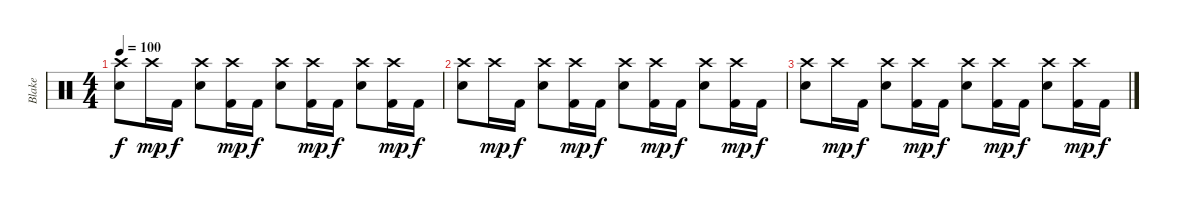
\track ("Blake" "Blake") {instrument percussion}
\staff {score}
\articulation defaults
\ts (4 4)
\tempo 100
\clef neutral
\ks c
("Crash high (hit)" "Snare (hit) 2").8{dy f} "Crash high (hit)".16{dy mp} "Kick (hit) 2".16{dy f} ("Crash high (hit)" "Snare (hit) 2").8 ("Crash high (hit)" "Kick (hit) 2").16{dy mp} "Kick (hit) 2".16{dy f} ("Crash high (hit)" "Snare (hit) 2").8 ("Crash high (hit)" "Kick (hit) 2").16{dy mp} "Kick (hit) 2".16{dy f} ("Crash high (hit)" "Snare (hit) 2").8 ("Crash high (hit)" "Kick (hit) 2").16{dy mp} "Kick (hit) 2".16{dy f} |
("Crash high (hit)" "Snare (hit) 2").8 "Crash high (hit)".16{dy mp} "Kick (hit) 2".16{dy f} ("Crash high (hit)" "Snare (hit) 2").8 ("Crash high (hit)" "Kick (hit) 2").16{dy mp} "Kick (hit) 2".16{dy f} ("Crash high (hit)" "Snare (hit) 2").8 ("Crash high (hit)" "Kick (hit) 2").16{dy mp} "Kick (hit) 2".16{dy f} ("Crash high (hit)" "Snare (hit) 2").8 ("Crash high (hit)" "Kick (hit) 2").16{dy mp} "Kick (hit) 2".16{dy f} |
("Crash high (hit)" "Snare (hit) 2").8 "Crash high (hit)".16{dy mp} "Kick (hit) 2".16{dy f} ("Crash high (hit)" "Snare (hit) 2").8 ("Crash high (hit)" "Kick (hit) 2").16{dy mp} "Kick (hit) 2".16{dy f} ("Crash high (hit)" "Snare (hit) 2").8 ("Crash high (hit)" "Kick (hit) 2").16{dy mp} "Kick (hit) 2".16{dy f} ("Crash high (hit)" "Snare (hit) 2").8 ("Crash high (hit)" "Kick (hit) 2").16{dy mp} "Kick (hit) 2".16{dy f}
